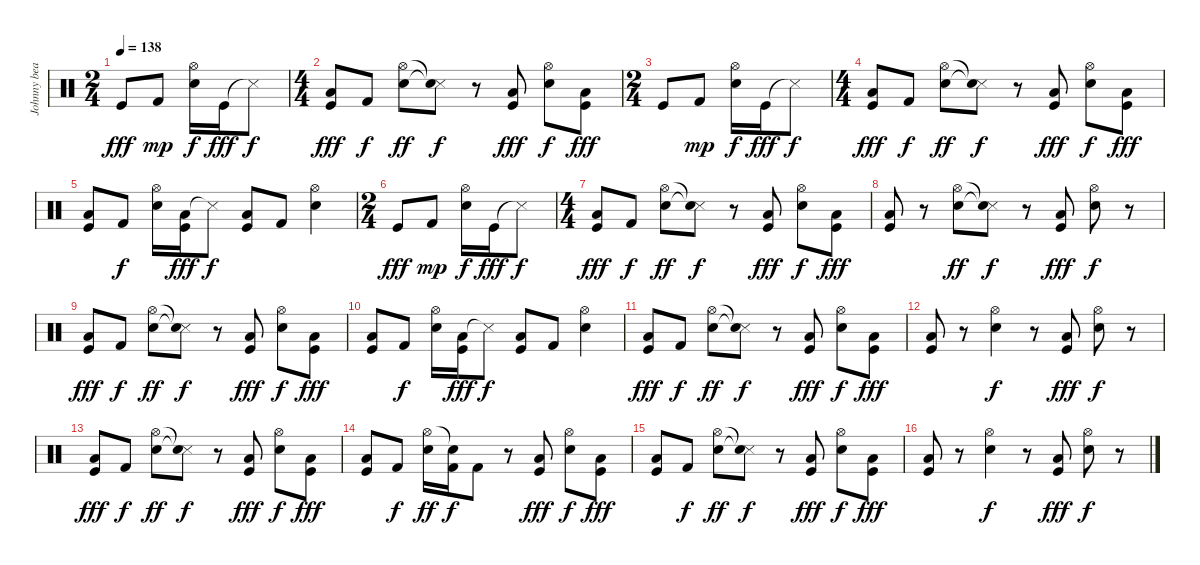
\track ("Johnny beat" "Johnny bea") {instrument percussion}
\staff {score}
\articulation defaults
\ts (2 4)
\tempo 138
\clef neutral
\ks c "Kick (hit)".8{dy fff} "Kick (hit) 2".8{dy mp}
("Electric Snare (hit)" "Hi-Hat (open)").16{dy f} "Kick (hit)".16{dy fff} "Snare (side stick) 3"{t}.8{dy f} |
\ts (4 4)
("Low Tom (hit)" "Kick (hit)").8{dy fff} "Kick (hit) 2".8{dy f} ("Electric Snare (hit)" "Hi-Hat (open)").8{dy ff} ("Snare (side stick) 3"{t} "Snare (hit)"{t}).8{dy f} r.8 ("Low Tom (hit)" "Kick (hit)").8{dy fff} ("Electric Snare (hit)" "Hi-Hat (open)").8{dy f} ("Low Tom (hit)" "Kick (hit)").8{dy fff} |
\ts (2 4)
"Kick (hit)".8 "Kick (hit) 2".8{dy mp} ("Electric Snare (hit)" "Hi-Hat (open)").16{dy f} "Kick (hit)".16{dy fff} "Snare (side stick) 3"{t}.8{dy f} |
\ts (4 4)
("Low Tom (hit)" "Kick (hit)").8{dy fff} "Kick (hit) 2".8{dy f} ("Electric Snare (hit)" "Hi-Hat (open)").8{dy ff} ("Snare (side stick) 3"{t} "Snare (hit)"{t}).8{dy f} r.8 ("Low Tom (hit)" "Kick (hit)").8{dy fff} ("Electric Snare (hit)" "Hi-Hat (open)").8{dy f} ("Low Tom (hit)" "Kick (hit)").8{dy fff} |
("Low Tom (hit)" "Kick (hit)").8 "Kick (hit) 2".8{dy f} ("Electric Snare (hit)" "Hi-Hat (open)").16 ("Low Tom (hit)" "Kick (hit)").16{dy fff} "Snare (side stick) 3"{t}.8{dy f} ("Kick (hit)" "Low Tom (hit)").8 "Kick (hit) 2".8 ("Electric Snare (hit)" "Hi-Hat (open)").4 |
\ts (2 4)
"Kick (hit)".8{dy fff} "Kick (hit) 2".8{dy mp} ("Electric Snare (hit)" "Hi-Hat (open)").16{dy f} "Kick (hit)".16{dy fff} "Snare (side stick) 3"{t}.8{dy f} |
\ts (4 4)
("Low Tom (hit)" "Kick (hit)").8{dy fff} "Kick (hit) 2".8{dy f} ("Electric Snare (hit)" "Hi-Hat (open)").8{dy ff} ("Snare (side stick) 3"{t} "Snare (hit)"{t}).8{dy f} r.8 ("Low Tom (hit)" "Kick (hit)").8{dy fff} ("Electric Snare (hit)" "Hi-Hat (open)").8{dy f} ("Low Tom (hit)" "Kick (hit)").8{dy fff} |
("Low Tom (hit)" "Kick (hit)").8 r.8 ("Electric Snare (hit)" "Hi-Hat (open)").8{dy ff} ("Snare (side stick) 3"{t} "Snare (hit)"{t}).8{dy f} r.8 ("Low Tom (hit)" "Kick (hit)").8{dy fff} ("Electric Snare (hit)" "Hi-Hat (open)").8{dy f} r.8 |
("Low Tom (hit)" "Kick (hit)").8{dy fff} "Kick (hit) 2".8{dy f} ("Electric Snare (hit)" "Hi-Hat (open)").8{dy ff} ("Snare (side stick) 3"{t} "Snare (hit)"{t}).8{dy f} r.8 ("Low Tom (hit)" "Kick (hit)").8{dy fff} ("Electric Snare (hit)" "Hi-Hat (open)").8{dy f} ("Low Tom (hit)" "Kick (hit)").8{dy fff} |
("Low Tom (hit)" "Kick (hit)").8 "Kick (hit) 2".8{dy f} ("Electric Snare (hit)" "Hi-Hat (open)").16 ("Low Tom (hit)" "Kick (hit)").16{dy fff} "Snare (side stick) 3"{t}.8{dy f} ("Kick (hit)" "Low Tom (hit)").8 "Kick (hit) 2".8 ("Electric Snare (hit)" "Hi-Hat (open)").4 |
("Low Tom (hit)" "Kick (hit)").8{dy fff} "Kick (hit) 2".8{dy f} ("Electric Snare (hit)" "Hi-Hat (open)").8{dy ff} ("Snare (side stick) 3"{t} "Snare (hit)"{t}).8{dy f} r.8 ("Low Tom (hit)" "Kick (hit)").8{dy fff} ("Electric Snare (hit)" "Hi-Hat (open)").8{dy f} ("Low Tom (hit)" "Kick (hit)").8{dy fff} |
("Low Tom (hit)" "Kick (hit)").8 r.8 ("Electric Snare (hit)" "Hi-Hat (open)").4{dy f} r.8 ("Low Tom (hit)" "Kick (hit)").8{dy fff} ("Electric Snare (hit)" "Hi-Hat (open)").8{dy f} r.8 |
("Low Tom (hit)" "Kick (hit)").8{dy fff} "Kick (hit) 2".8{dy f} ("Electric Snare (hit)" "Hi-Hat (open)").8{dy ff} ("Snare (side stick) 3"{t} "Snare (hit)"{t}).8{dy f} r.8 ("Low Tom (hit)" "Kick (hit)").8{dy fff} ("Electric Snare (hit)" "Hi-Hat (open)").8{dy f} ("Low Tom (hit)" "Kick (hit)").8{dy fff} |
("Low Tom (hit)" "Kick (hit)").8 "Kick (hit) 2".8{dy f} ("Electric Snare (hit)" "Hi-Hat (open)").16{dy ff} ("Kick (hit) 2" "Snare (hit)"{t}).16{dy f} "Kick (hit) 2".8 r.8 ("Low Tom (hit)" "Kick (hit)").8{dy fff} ("Electric Snare (hit)" "Hi-Hat (open)").8{dy f} ("Low Tom (hit)" "Kick (hit)").8{dy fff} |
("Low Tom (hit)" "Kick (hit)").8 "Kick (hit) 2".8{dy f} ("Electric Snare (hit)" "Hi-Hat (open)").8{dy ff} ("Snare (side stick) 3"{t} "Snare (hit)"{t}).8{dy f} r.8 ("Low Tom (hit)" "Kick (hit)").8{dy fff} ("Electric Snare (hit)" "Hi-Hat (open)").8{dy f} ("Low Tom (hit)" "Kick (hit)").8{dy fff} |
("Low Tom (hit)" "Kick (hit)").8 r.8 ("Electric Snare (hit)" "Hi-Hat (open)").4{dy f} r.8 ("Low Tom (hit)" "Kick (hit)").8{dy fff} ("Electric Snare (hit)" "Hi-Hat (open)").8{dy f} r.8
